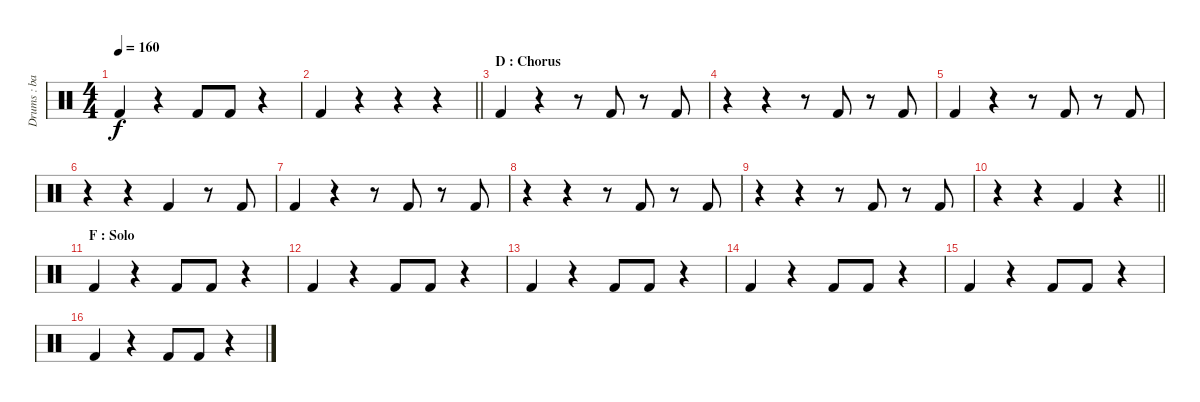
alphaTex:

\track ("Drums : bass drums" "Drums : ba") {instrument percussion}
\staff {score}
\articulation defaults
\ts (4 4)
\tempo 160
\clef neutral
\ks c "Kick (hit) 2".4{dy f}
r.4 "Kick (hit) 2".8 "Kick (hit) 2".8 r.4 |
\barLineRight lightlight "Kick (hit) 2".4
r.4 r.4 r.4 |
\section ("" "D : Chorus")
"Kick (hit) 2".4 r.4 r.8 "Kick (hit) 2".8 r.8 "Kick (hit) 2".8 |
r.4 r.4 r.8 "Kick (hit) 2".8 r.8 "Kick (hit) 2".8 |
"Kick (hit) 2".4 r.4 r.8 "Kick (hit) 2".8 r.8 "Kick (hit) 2".8 |
r.4 r.4 "Kick (hit) 2".4 r.8 "Kick (hit) 2".8 |
"Kick (hit) 2".4 r.4 r.8 "Kick (hit) 2".8 r.8 "Kick (hit) 2".8 |
r.4 r.4 r.8 "Kick (hit) 2".8 r.8 "Kick (hit) 2".8 |
r.4 r.4 r.8 "Kick (hit) 2".8 r.8 "Kick (hit) 2".8 |
\barLineRight lightlight
r.4 r.4 "Kick (hit) 2".4 r.4 |
\section ("" "F : Solo")
"Kick (hit) 2".4 r.4 "Kick (hit) 2".8 "Kick (hit) 2".8 r.4 |
"Kick (hit) 2".4 r.4 "Kick (hit) 2".8 "Kick (hit) 2".8 r.4 |
"Kick (hit) 2".4 r.4 "Kick (hit) 2".8 "Kick (hit) 2".8 r.4 |
"Kick (hit) 2".4 r.4 "Kick (hit) 2".8 "Kick (hit) 2".8 r.4 |
"Kick (hit) 2".4 r.4 "Kick (hit) 2".8 "Kick (hit) 2".8 r.4 |
"Kick (hit) 2".4 r.4 "Kick (hit) 2".8 "Kick (hit) 2".8 r.4
